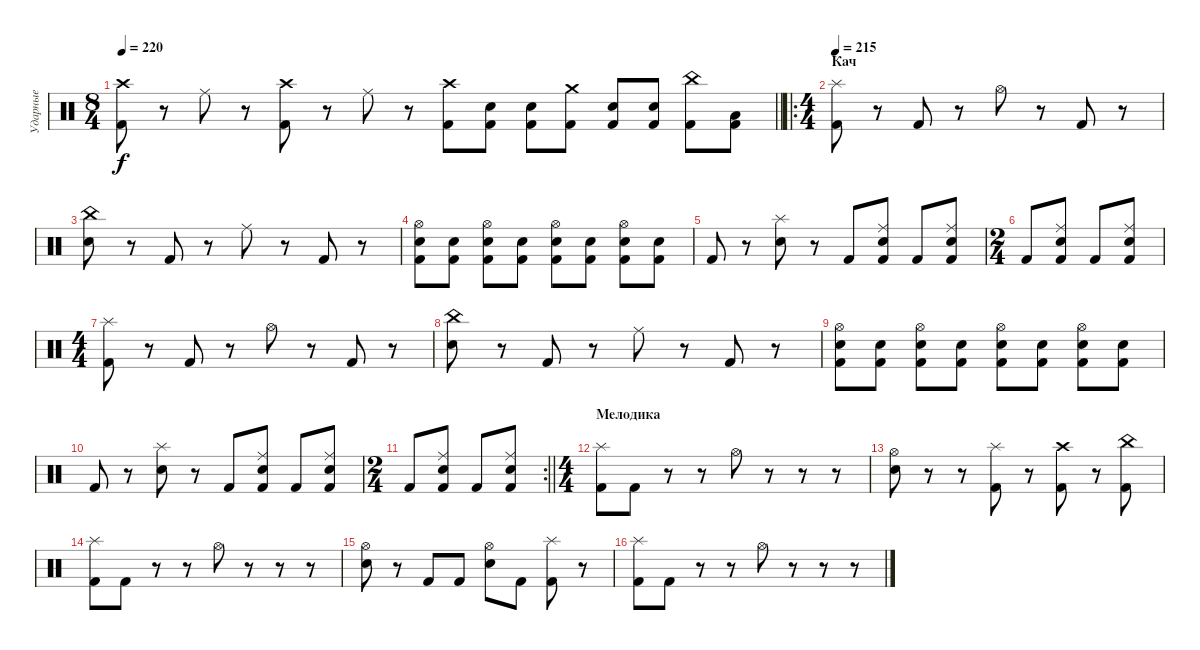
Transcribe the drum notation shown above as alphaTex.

\track ("Ударные" "Ударные") {instrument percussion}
\staff {score}
\articulation defaults
\ts (8 4)
\tempo 220
\clef neutral
\barLineRight lightlight
\ks c
("Kick (hit) 2" "Crash high (hit)").8{dy f} r.8 "Ride (middle)".8 r.8 ("Kick (hit) 2" "Crash high (hit)").8 r.8 "Ride (middle)".8 r.8 ("Kick (hit) 2" "Crash high (hit)").8 ("Kick (hit) 2" "Electric Snare (hit)").8 ("Kick (hit) 2" "Electric Snare (hit)").8 ("Kick (hit) 2" "Crash medium (hit)").8 ("Kick (hit) 2" "Electric Snare (hit)").8 ("Kick (hit) 2" "Electric Snare (hit)").8 ("Kick (hit) 2" "China (hit)").8 ("Kick (hit) 2" "Low Tom (hit)").8 |
\ro
\ts (4 4)
\section ("" "Кач")
\tempo 215
("Kick (hit) 2" "Splash (hit)").8 r.8 "Kick (hit) 2".8 r.8 "Hi-Hat (open)".8 r.8 "Kick (hit) 2".8 r.8 |
("Electric Snare (hit)" "China (hit)").8 r.8 "Kick (hit) 2".8 r.8 "Ride (middle)".8 r.8 "Kick (hit) 2".8 r.8 |
("Kick (hit) 2" "Electric Snare (hit)" "Hi-Hat (open)").8 ("Kick (hit) 2" "Electric Snare (hit)").8 ("Kick (hit) 2" "Electric Snare (hit)" "Hi-Hat (open)").8 ("Kick (hit) 2" "Electric Snare (hit)").8 ("Kick (hit) 2" "Electric Snare (hit)" "Hi-Hat (open)").8 ("Kick (hit) 2" "Electric Snare (hit)").8 ("Kick (hit) 2" "Electric Snare (hit)" "Hi-Hat (open)").8 ("Kick (hit) 2" "Electric Snare (hit)").8 |
"Kick (hit) 2".8 r.8 ("Electric Snare (hit)" "Splash (hit)").8 r.8 "Kick (hit) 2".8 ("Kick (hit) 2" "Electric Snare (hit)" "Ride (middle)").8 "Kick (hit) 2".8 ("Kick (hit) 2" "Electric Snare (hit)" "Ride (middle)").8 |
\ts (2 4)
"Kick (hit) 2".8 ("Kick (hit) 2" "Electric Snare (hit)" "Ride (middle)").8 "Kick (hit) 2".8 ("Kick (hit) 2" "Electric Snare (hit)" "Ride (middle)").8 |
\ts (4 4)
("Kick (hit) 2" "Splash (hit)").8 r.8 "Kick (hit) 2".8 r.8 "Hi-Hat (open)".8 r.8 "Kick (hit) 2".8 r.8 |
("Electric Snare (hit)" "China (hit)").8 r.8 "Kick (hit) 2".8 r.8 "Ride (middle)".8 r.8 "Kick (hit) 2".8 r.8 |
("Kick (hit) 2" "Electric Snare (hit)" "Hi-Hat (open)").8 ("Kick (hit) 2" "Electric Snare (hit)").8 ("Kick (hit) 2" "Electric Snare (hit)" "Hi-Hat (open)").8 ("Kick (hit) 2" "Electric Snare (hit)").8 ("Kick (hit) 2" "Electric Snare (hit)" "Hi-Hat (open)").8 ("Kick (hit) 2" "Electric Snare (hit)").8 ("Kick (hit) 2" "Electric Snare (hit)" "Hi-Hat (open)").8 ("Kick (hit) 2" "Electric Snare (hit)").8 |
"Kick (hit) 2".8 r.8 ("Electric Snare (hit)" "Splash (hit)").8 r.8 "Kick (hit) 2".8 ("Kick (hit) 2" "Electric Snare (hit)" "Ride (middle)").8 "Kick (hit) 2".8 ("Kick (hit) 2" "Electric Snare (hit)" "Ride (middle)").8 |
\rc 2
\ts (2 4)
\barLineRight lightlight "Kick (hit) 2".8
("Kick (hit) 2" "Electric Snare (hit)" "Ride (middle)").8 "Kick (hit) 2".8 ("Kick (hit) 2" "Electric Snare (hit)" "Ride (middle)").8 |
\ts (4 4)
\section ("" "Мелодика")
("Kick (hit) 2" "Splash (hit)").8 "Kick (hit) 2".8 r.8 r.8 "Hi-Hat (open)".8 r.8 r.8 r.8 |
("Electric Snare (hit)" "Hi-Hat (open)").8 r.8 r.8 ("Kick (hit) 2" "Splash (hit)").8 r.8 ("Kick (hit) 2" "Crash high (hit)").8 r.8 ("Kick (hit) 2" "China (hit)").8 |
("Kick (hit) 2" "Splash (hit)").8 "Kick (hit) 2".8 r.8 r.8 "Hi-Hat (open)".8 r.8 r.8 r.8 |
("Electric Snare (hit)" "Hi-Hat (open)").8 r.8 "Kick (hit) 2".8 "Kick (hit) 2".8 ("Electric Snare (hit)" "Hi-Hat (open)").8 "Kick (hit) 2".8 ("Kick (hit) 2" "Splash (hit)").8 r.8 |
("Kick (hit) 2" "Splash (hit)").8 "Kick (hit) 2".8 r.8 r.8 "Hi-Hat (open)".8 r.8 r.8 r.8
